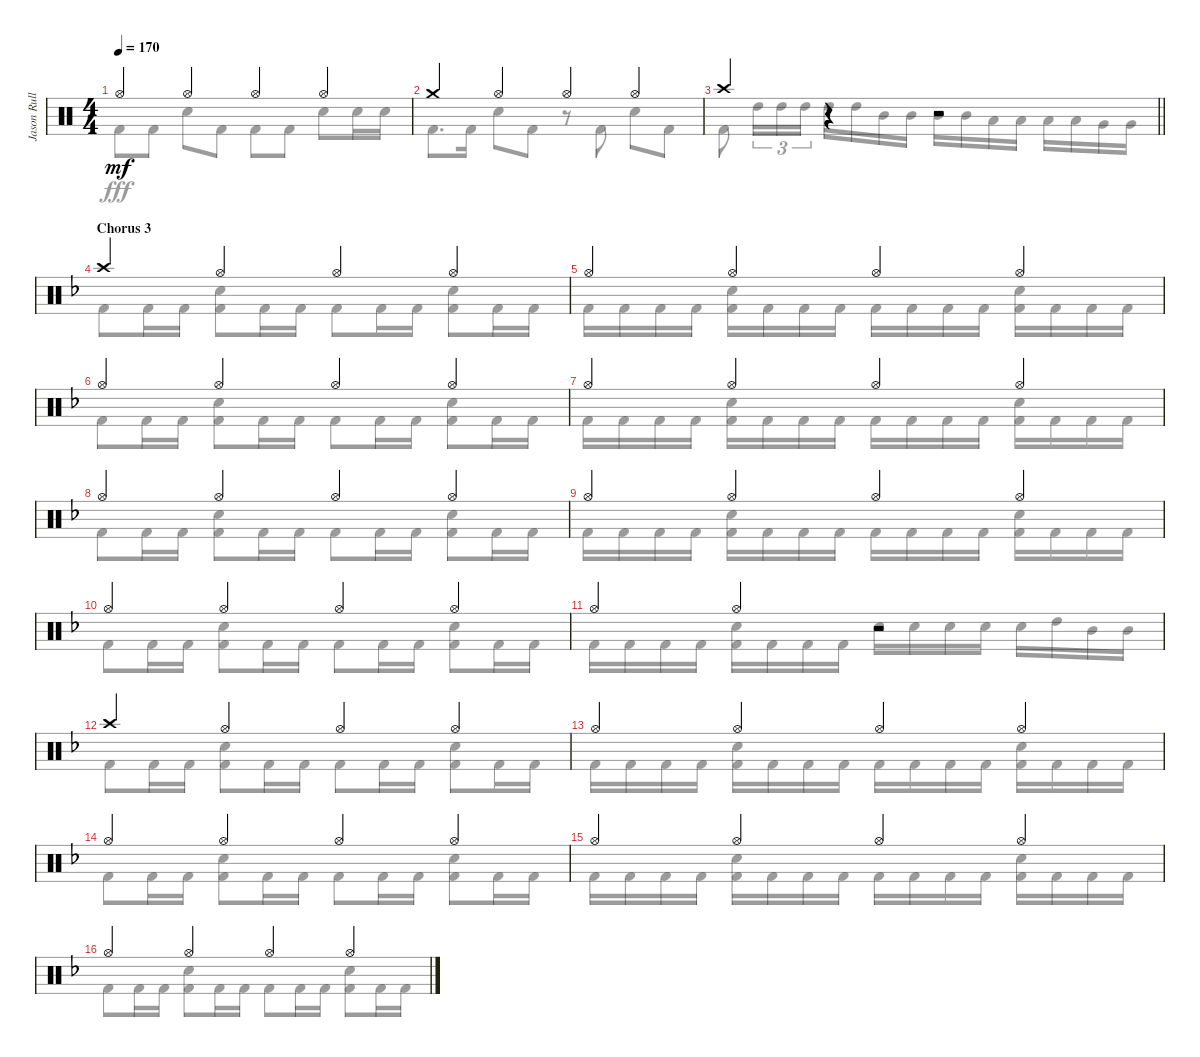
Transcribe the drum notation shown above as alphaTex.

\track ("Jason Rullo Drums" "Jason Rull") {instrument percussion}
\staff {score}
\articulation defaults
\voice
\ts (4 4)
\tempo 170
\clef neutral
\ks aminor "Hi-Hat (open)".4{dy mf} "Hi-Hat (open)".4 "Hi-Hat (open)".4 "Hi-Hat (open)".4
|
"Crash medium (hit)".4 "Hi-Hat (open)".4 "Hi-Hat (open)".4 "Hi-Hat (open)".4 |
\barLineRight lightlight "Crash high (hit)".4
r.4 r.2 |
\section ("" "Chorus 3")
\ks dminor "Crash high (hit)".4 "Hi-Hat (open)".4 "Hi-Hat (open)".4 "Hi-Hat (open)".4
|
"Hi-Hat (open)".4 "Hi-Hat (open)".4 "Hi-Hat (open)".4 "Hi-Hat (open)".4 |
"Hi-Hat (open)".4 "Hi-Hat (open)".4 "Hi-Hat (open)".4 "Hi-Hat (open)".4 |
"Hi-Hat (open)".4 "Hi-Hat (open)".4 "Hi-Hat (open)".4 "Hi-Hat (open)".4 |
"Hi-Hat (open)".4 "Hi-Hat (open)".4 "Hi-Hat (open)".4 "Hi-Hat (open)".4 |
"Hi-Hat (open)".4 "Hi-Hat (open)".4 "Hi-Hat (open)".4 "Hi-Hat (open)".4 |
"Hi-Hat (open)".4 "Hi-Hat (open)".4 "Hi-Hat (open)".4 "Hi-Hat (open)".4 |
"Hi-Hat (open)".4 "Hi-Hat (open)".4 r.2 |
"Crash high (hit)".4 "Hi-Hat (open)".4 "Hi-Hat (open)".4 "Hi-Hat (open)".4 |
"Hi-Hat (open)".4 "Hi-Hat (open)".4 "Hi-Hat (open)".4 "Hi-Hat (open)".4 |
"Hi-Hat (open)".4 "Hi-Hat (open)".4 "Hi-Hat (open)".4 "Hi-Hat (open)".4 |
"Hi-Hat (open)".4 "Hi-Hat (open)".4 "Hi-Hat (open)".4 "Hi-Hat (open)".4 |
"Hi-Hat (open)".4 "Hi-Hat (open)".4 "Hi-Hat (open)".4 "Hi-Hat (open)".4
\voice
\clef neutral
\ottava regular
\simile none
\ks aminor "Kick (hit) 2".8{dy fff} "Kick (hit) 2".8 "Electric Snare (hit)".8 "Kick (hit) 2".8 "Kick (hit) 2".8 "Kick (hit) 2".8 "Electric Snare (hit)".8 "Electric Snare (hit)".16 "Electric Snare (hit)".16
|
"Kick (hit) 2".8{d} "Kick (hit) 2".16 "Electric Snare (hit)".8 "Kick (hit) 2".8 r.8 "Kick (hit) 2".8 "Electric Snare (hit)".8 "Kick (hit) 2".8 |
\barLineRight lightlight "Kick (hit) 2".8 "High Tom (hit)".16{tu (3 2)} "High Tom (hit)".16{tu (3 2)} "High Tom (hit)".16{tu (3 2)} "High Tom (hit)".16 "High Tom (hit)".16 "Mid Tom (hit)".16 "Mid Tom (hit)".16 "Mid Tom (hit)".16 "Mid Tom (hit)".16 "Low Tom (hit)".16 "Low Tom (hit)".16 "Low Tom (hit)".16 "Low Tom (hit)".16 "Very Low Tom (hit)".16 "Very Low Tom (hit)".16
|
\ks dminor "Kick (hit) 2".8 "Kick (hit) 2".16 "Kick (hit) 2".16
("Electric Snare (hit)" "Kick (hit) 2").8 "Kick (hit) 2".16 "Kick (hit) 2".16 "Kick (hit) 2".8 "Kick (hit) 2".16 "Kick (hit) 2".16 ("Electric Snare (hit)" "Kick (hit) 2").8 "Kick (hit) 2".16 "Kick (hit) 2".16 |
"Kick (hit) 2".16 "Kick (hit) 2".16 "Kick (hit) 2".16 "Kick (hit) 2".16 ("Electric Snare (hit)" "Kick (hit) 2").16 "Kick (hit) 2".16 "Kick (hit) 2".16 "Kick (hit) 2".16 "Kick (hit) 2".16 "Kick (hit) 2".16 "Kick (hit) 2".16 "Kick (hit) 2".16 ("Electric Snare (hit)" "Kick (hit) 2").16 "Kick (hit) 2".16 "Kick (hit) 2".16 "Kick (hit) 2".16 |
"Kick (hit) 2".8 "Kick (hit) 2".16 "Kick (hit) 2".16 ("Electric Snare (hit)" "Kick (hit) 2").8 "Kick (hit) 2".16 "Kick (hit) 2".16 "Kick (hit) 2".8 "Kick (hit) 2".16 "Kick (hit) 2".16 ("Electric Snare (hit)" "Kick (hit) 2").8 "Kick (hit) 2".16 "Kick (hit) 2".16 |
"Kick (hit) 2".16 "Kick (hit) 2".16 "Kick (hit) 2".16 "Kick (hit) 2".16 ("Electric Snare (hit)" "Kick (hit) 2").16 "Kick (hit) 2".16 "Kick (hit) 2".16 "Kick (hit) 2".16 "Kick (hit) 2".16 "Kick (hit) 2".16 "Kick (hit) 2".16 "Kick (hit) 2".16 ("Electric Snare (hit)" "Kick (hit) 2").16 "Kick (hit) 2".16 "Kick (hit) 2".16 "Kick (hit) 2".16 |
"Kick (hit) 2".8 "Kick (hit) 2".16 "Kick (hit) 2".16 ("Electric Snare (hit)" "Kick (hit) 2").8 "Kick (hit) 2".16 "Kick (hit) 2".16 "Kick (hit) 2".8 "Kick (hit) 2".16 "Kick (hit) 2".16 ("Electric Snare (hit)" "Kick (hit) 2").8 "Kick (hit) 2".16 "Kick (hit) 2".16 |
"Kick (hit) 2".16 "Kick (hit) 2".16 "Kick (hit) 2".16 "Kick (hit) 2".16 ("Electric Snare (hit)" "Kick (hit) 2").16 "Kick (hit) 2".16 "Kick (hit) 2".16 "Kick (hit) 2".16 "Kick (hit) 2".16 "Kick (hit) 2".16 "Kick (hit) 2".16 "Kick (hit) 2".16 ("Electric Snare (hit)" "Kick (hit) 2").16 "Kick (hit) 2".16 "Kick (hit) 2".16 "Kick (hit) 2".16 |
"Kick (hit) 2".8 "Kick (hit) 2".16 "Kick (hit) 2".16 ("Electric Snare (hit)" "Kick (hit) 2").8 "Kick (hit) 2".16 "Kick (hit) 2".16 "Kick (hit) 2".8 "Kick (hit) 2".16 "Kick (hit) 2".16 ("Electric Snare (hit)" "Kick (hit) 2").8 "Kick (hit) 2".16 "Kick (hit) 2".16 |
"Kick (hit) 2".16 "Kick (hit) 2".16 "Kick (hit) 2".16 "Kick (hit) 2".16 ("Electric Snare (hit)" "Kick (hit) 2").16 "Kick (hit) 2".16 "Kick (hit) 2".16 "Kick (hit) 2".16 "Electric Snare (hit)".16 "Electric Snare (hit)".16 "Electric Snare (hit)".16 "Electric Snare (hit)".16 "Electric Snare (hit)".16 "High Tom (hit)".16 "Mid Tom (hit)".16 "Mid Tom (hit)".16 |
"Kick (hit) 2".8 "Kick (hit) 2".16 "Kick (hit) 2".16 ("Electric Snare (hit)" "Kick (hit) 2").8 "Kick (hit) 2".16 "Kick (hit) 2".16 "Kick (hit) 2".8 "Kick (hit) 2".16 "Kick (hit) 2".16 ("Electric Snare (hit)" "Kick (hit) 2").8 "Kick (hit) 2".16 "Kick (hit) 2".16 |
"Kick (hit) 2".16 "Kick (hit) 2".16 "Kick (hit) 2".16 "Kick (hit) 2".16 ("Electric Snare (hit)" "Kick (hit) 2").16 "Kick (hit) 2".16 "Kick (hit) 2".16 "Kick (hit) 2".16 "Kick (hit) 2".16 "Kick (hit) 2".16 "Kick (hit) 2".16 "Kick (hit) 2".16 ("Electric Snare (hit)" "Kick (hit) 2").16 "Kick (hit) 2".16 "Kick (hit) 2".16 "Kick (hit) 2".16 |
"Kick (hit) 2".8 "Kick (hit) 2".16 "Kick (hit) 2".16 ("Electric Snare (hit)" "Kick (hit) 2").8 "Kick (hit) 2".16 "Kick (hit) 2".16 "Kick (hit) 2".8 "Kick (hit) 2".16 "Kick (hit) 2".16 ("Electric Snare (hit)" "Kick (hit) 2").8 "Kick (hit) 2".16 "Kick (hit) 2".16 |
"Kick (hit) 2".16 "Kick (hit) 2".16 "Kick (hit) 2".16 "Kick (hit) 2".16 ("Electric Snare (hit)" "Kick (hit) 2").16 "Kick (hit) 2".16 "Kick (hit) 2".16 "Kick (hit) 2".16 "Kick (hit) 2".16 "Kick (hit) 2".16 "Kick (hit) 2".16 "Kick (hit) 2".16 ("Electric Snare (hit)" "Kick (hit) 2").16 "Kick (hit) 2".16 "Kick (hit) 2".16 "Kick (hit) 2".16 |
"Kick (hit) 2".8 "Kick (hit) 2".16 "Kick (hit) 2".16 ("Electric Snare (hit)" "Kick (hit) 2").8 "Kick (hit) 2".16 "Kick (hit) 2".16 "Kick (hit) 2".8 "Kick (hit) 2".16 "Kick (hit) 2".16 ("Electric Snare (hit)" "Kick (hit) 2").8 "Kick (hit) 2".16 "Kick (hit) 2".16
